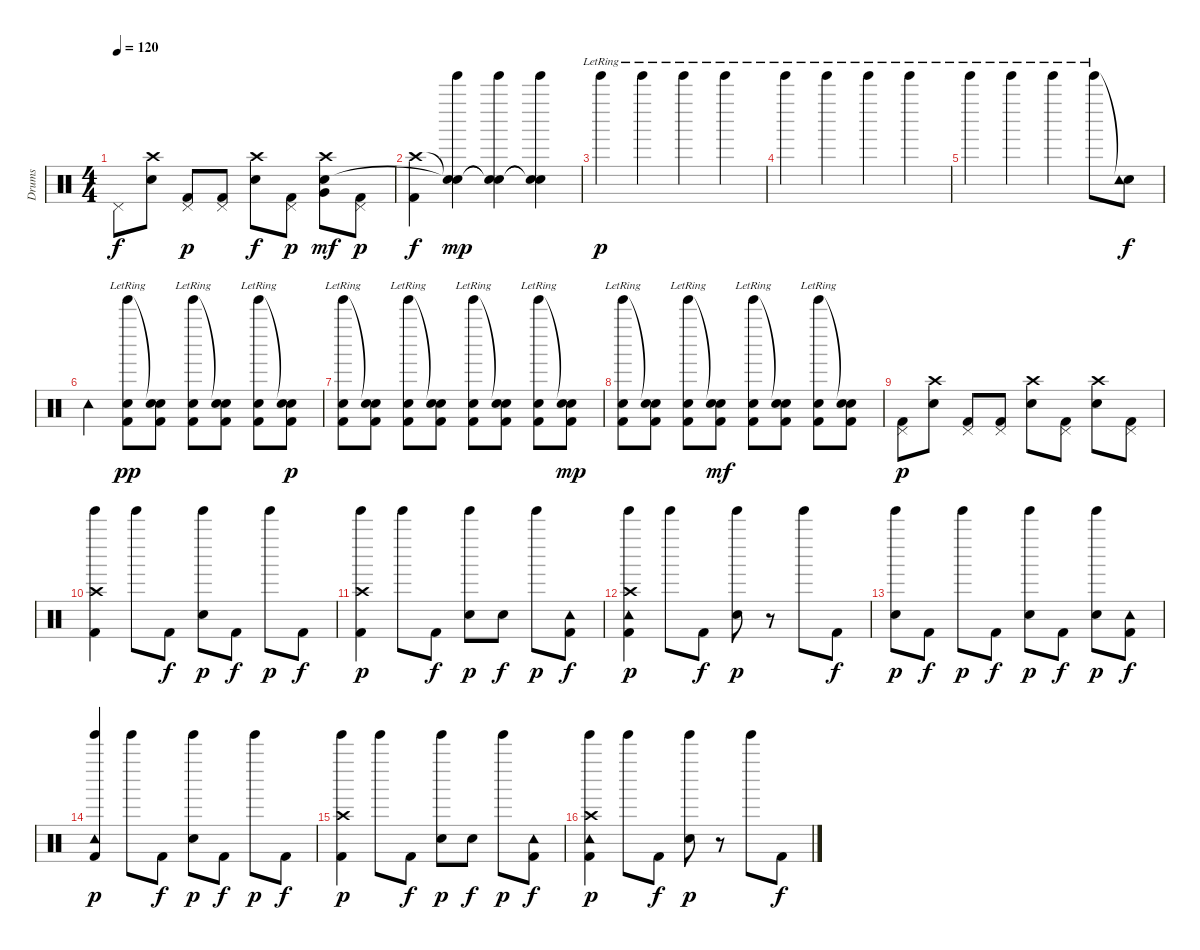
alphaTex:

\track ("Drums" "Drums") {instrument percussion}
\staff {score}
\articulation defaults
\ts (4 4)
\tempo 120
\clef neutral
\ks c "Pedal Hi-Hat (hit)".8{dy f}
("Crash high (hit)" "Electric Snare (hit)").8 ("Pedal Hi-Hat (hit)" "Kick (hit) 2").8{dy p} ("Pedal Hi-Hat (hit)" "Kick (hit) 2").8 ("Crash high (hit)" "Electric Snare (hit)").8{dy f} ("Pedal Hi-Hat (hit)" "Kick (hit) 2").8{dy p} ("Crash high (hit)" "Very Low Tom (hit)" "Electric Snare (hit)").8{dy mf} ("Pedal Hi-Hat (hit)" "Kick (hit) 2").8{dy p} |
("Crash high (hit)" "Kick (hit) 2").4{dy f} ("Snare (hit)"{t} "Tinkle Bell (hit)" "Snare (hit)"{t}).4{dy mp} ("Snare (hit)"{t} "Tinkle Bell (hit)" "Snare (hit)"{t}).4 ("Snare (hit)"{t} "Tinkle Bell (hit)" "Snare (hit)"{t}).4 |
"Tinkle Bell (hit)"{lr}.4{dy p} "Tinkle Bell (hit)"{lr}.4 "Tinkle Bell (hit)"{lr}.4 "Tinkle Bell (hit)"{lr}.4 |
"Tinkle Bell (hit)"{lr}.4 "Tinkle Bell (hit)"{lr}.4 "Tinkle Bell (hit)"{lr}.4 "Tinkle Bell (hit)"{lr}.4 |
"Tinkle Bell (hit)"{lr}.4 "Tinkle Bell (hit)"{lr}.4 "Tinkle Bell (hit)"{lr}.4 "Tinkle Bell (hit)"{lr}.8 ("Snare (hit)"{t} "Tambourine (hit)").8{dy f balance 0} |
"Tambourine (hit)".4 ("Tinkle Bell (hit)"{lr} "Electric Snare (hit)" "Kick (hit) 2").8{dy pp balance 8} ("Snare (hit)"{t} "Electric Snare (hit)" "Kick (hit) 2").8 ("Tinkle Bell (hit)"{lr} "Electric Snare (hit)" "Kick (hit) 2").8 ("Snare (hit)"{t} "Electric Snare (hit)" "Kick (hit) 2").8 ("Tinkle Bell (hit)"{lr} "Electric Snare (hit)" "Kick (hit) 2").8 ("Snare (hit)"{t} "Electric Snare (hit)" "Kick (hit) 2").8{dy p} |
("Tinkle Bell (hit)"{lr} "Electric Snare (hit)" "Kick (hit) 2").8 ("Snare (hit)"{t} "Electric Snare (hit)" "Kick (hit) 2").8 ("Tinkle Bell (hit)"{lr} "Electric Snare (hit)" "Kick (hit) 2").8 ("Snare (hit)"{t} "Electric Snare (hit)" "Kick (hit) 2").8 ("Tinkle Bell (hit)"{lr} "Electric Snare (hit)" "Kick (hit) 2").8 ("Snare (hit)"{t} "Electric Snare (hit)" "Kick (hit) 2").8 ("Tinkle Bell (hit)"{lr} "Electric Snare (hit)" "Kick (hit) 2").8 ("Snare (hit)"{t} "Electric Snare (hit)" "Kick (hit) 2").8{dy mp} |
("Tinkle Bell (hit)"{lr} "Electric Snare (hit)" "Kick (hit) 2").8 ("Snare (hit)"{t} "Electric Snare (hit)" "Kick (hit) 2").8 ("Tinkle Bell (hit)"{lr} "Electric Snare (hit)" "Kick (hit) 2").8 ("Snare (hit)"{t} "Electric Snare (hit)" "Kick (hit) 2").8{dy mf} ("Tinkle Bell (hit)"{lr} "Electric Snare (hit)" "Kick (hit) 2").8 ("Snare (hit)"{t} "Electric Snare (hit)" "Kick (hit) 2").8 ("Tinkle Bell (hit)"{lr} "Electric Snare (hit)" "Kick (hit) 2").8 ("Snare (hit)"{t} "Electric Snare (hit)" "Kick (hit) 2").8 |
("Pedal Hi-Hat (hit)" "Kick (hit) 2").8{dy p} ("Crash high (hit)" "Electric Snare (hit)").8 ("Pedal Hi-Hat (hit)" "Kick (hit) 2").8 ("Pedal Hi-Hat (hit)" "Kick (hit) 2").8 ("Crash high (hit)" "Electric Snare (hit)").8 ("Pedal Hi-Hat (hit)" "Kick (hit) 2").8 ("Crash high (hit)" "Electric Snare (hit)").8 ("Pedal Hi-Hat (hit)" "Kick (hit) 2").8 |
("Crash high (hit)" "Tinkle Bell (hit)" "Kick (hit) 2").4 "Tinkle Bell (hit)".8 "Kick (hit) 2".8{dy f} ("Tinkle Bell (hit)" "Electric Snare (hit)").8{dy p} "Kick (hit) 2".8{dy f} "Tinkle Bell (hit)".8{dy p} "Kick (hit) 2".8{dy f} |
("Crash high (hit)" "Tinkle Bell (hit)" "Kick (hit) 2").4{dy p} "Tinkle Bell (hit)".8 "Kick (hit) 2".8{dy f} ("Tinkle Bell (hit)" "Electric Snare (hit)").8{dy p} "Electric Snare (hit)".8{dy f} "Tinkle Bell (hit)".8{dy p} ("Tambourine (hit)" "Kick (hit) 2").8{dy f} |
("Crash high (hit)" "Tinkle Bell (hit)" "Tambourine (hit)" "Kick (hit) 2").4{dy p} "Tinkle Bell (hit)".8 "Kick (hit) 2".8{dy f} ("Tinkle Bell (hit)" "Electric Snare (hit)").8{dy p} r.8 "Tinkle Bell (hit)".8 "Kick (hit) 2".8{dy f} |
("Tinkle Bell (hit)" "Electric Snare (hit)").8{dy p} "Kick (hit) 2".8{dy f} "Tinkle Bell (hit)".8{dy p} "Kick (hit) 2".8{dy f} ("Tinkle Bell (hit)" "Electric Snare (hit)").8{dy p} "Kick (hit) 2".8{dy f} ("Tinkle Bell (hit)" "Electric Snare (hit)").8{dy p} ("Tambourine (hit)" "Kick (hit) 2").8{dy f} |
("Tinkle Bell (hit)" "Tambourine (hit)" "Kick (hit) 2").4{dy p} "Tinkle Bell (hit)".8 "Kick (hit) 2".8{dy f} ("Tinkle Bell (hit)" "Electric Snare (hit)").8{dy p} "Kick (hit) 2".8{dy f} "Tinkle Bell (hit)".8{dy p} "Kick (hit) 2".8{dy f} |
("Crash high (hit)" "Tinkle Bell (hit)" "Kick (hit) 2").4{dy p} "Tinkle Bell (hit)".8 "Kick (hit) 2".8{dy f} ("Tinkle Bell (hit)" "Electric Snare (hit)").8{dy p} "Electric Snare (hit)".8{dy f} "Tinkle Bell (hit)".8{dy p} ("Tambourine (hit)" "Kick (hit) 2").8{dy f} |
("Crash high (hit)" "Tinkle Bell (hit)" "Tambourine (hit)" "Kick (hit) 2").4{dy p} "Tinkle Bell (hit)".8 "Kick (hit) 2".8{dy f} ("Tinkle Bell (hit)" "Electric Snare (hit)").8{dy p} r.8 "Tinkle Bell (hit)".8 "Kick (hit) 2".8{dy f}
